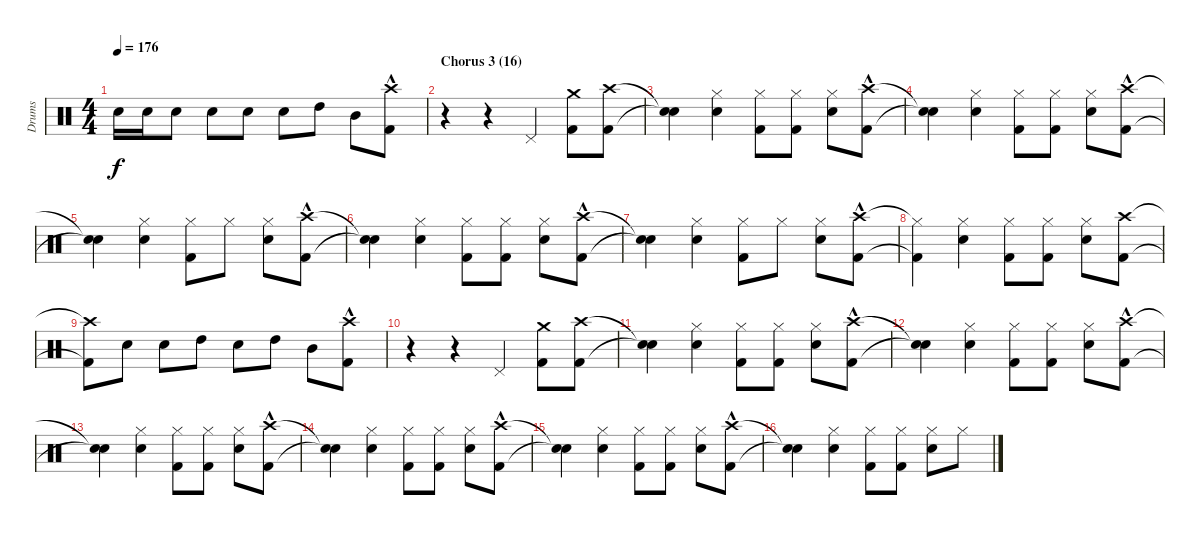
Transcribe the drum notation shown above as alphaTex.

\track ("Drums" "Drums") {instrument percussion}
\staff {score}
\articulation defaults
\ts (4 4)
\tempo 176
\clef neutral
\ks c "Snare (hit)"{t}.16{dy f} "Snare (hit) 2".16 "Snare (hit) 2".8 "Snare (hit) 2".8 "Snare (hit) 2".8 "Snare (hit) 2".8 "High Tom (hit)".8 "Mid Tom (hit)".8
("Crash high (hit)"{hac} "Kick (hit) 2").8 |
\section ("" "Chorus 3 (16)")
r.4 r.4 "Pedal Hi-Hat (hit)".4 ("Crash medium (hit)" "Kick (hit) 2").8 ("Crash high (hit)" "Kick (hit) 2").8 |
("Snare (hit)"{t} "Snare (hit)"{t}).4 ("Hi-Hat (closed)" "Snare (hit) 2").4 ("Hi-Hat (closed)" "Kick (hit) 2").8 ("Hi-Hat (closed)" "Kick (hit) 2").8 ("Hi-Hat (closed)" "Snare (hit) 2").8 ("Crash high (hit)"{hac} "Kick (hit) 2").8 |
("Snare (hit)"{t} "Snare (hit)"{t}).4 ("Hi-Hat (closed)" "Snare (hit) 2").4 ("Hi-Hat (closed)" "Kick (hit) 2").8 ("Hi-Hat (closed)" "Kick (hit) 2").8 ("Hi-Hat (closed)" "Snare (hit) 2").8 ("Crash high (hit)"{hac} "Kick (hit) 2").8 |
("Snare (hit)"{t} "Snare (hit)"{t}).4 ("Hi-Hat (closed)" "Snare (hit) 2").4 ("Hi-Hat (closed)" "Kick (hit) 2").8 "Hi-Hat (closed)".8 ("Hi-Hat (closed)" "Snare (hit) 2").8 ("Crash high (hit)"{hac} "Kick (hit) 2").8 |
("Snare (hit)"{t} "Snare (hit)"{t}).4 ("Hi-Hat (closed)" "Snare (hit) 2").4 ("Hi-Hat (closed)" "Kick (hit) 2").8 ("Hi-Hat (closed)" "Kick (hit) 2").8 ("Hi-Hat (closed)" "Snare (hit) 2").8 ("Crash high (hit)"{hac} "Kick (hit) 2").8 |
("Snare (hit)"{t} "Snare (hit)"{t}).4 ("Hi-Hat (closed)" "Snare (hit) 2").4 ("Hi-Hat (closed)" "Kick (hit) 2").8 "Hi-Hat (closed)".8 ("Hi-Hat (closed)" "Snare (hit) 2").8 ("Crash high (hit)"{hac} "Kick (hit) 2").8 |
("Hi-Hat (closed)"{t} "Kick (hit) 2"{t}).4 ("Hi-Hat (closed)" "Snare (hit) 2").4 ("Hi-Hat (closed)" "Kick (hit) 2").8 ("Hi-Hat (closed)" "Kick (hit) 2").8 ("Hi-Hat (closed)" "Snare (hit) 2").8 ("Crash high (hit)" "Kick (hit) 2").8 |
("Crash high (hit)"{t} "Kick (hit) 2"{t}).8 "Snare (hit) 2".8 "Snare (hit) 2".8 "High Tom (hit)".8 "Snare (hit) 2".8 "High Tom (hit)".8 "Mid Tom (hit)".8 ("Crash high (hit)"{hac} "Kick (hit) 2").8 |
r.4 r.4 "Pedal Hi-Hat (hit)".4 ("Crash medium (hit)" "Kick (hit) 2").8 ("Crash high (hit)" "Kick (hit) 2").8 |
("Snare (hit)"{t} "Snare (hit)"{t}).4 ("Hi-Hat (closed)" "Snare (hit) 2").4 ("Hi-Hat (closed)" "Kick (hit) 2").8 ("Hi-Hat (closed)" "Kick (hit) 2").8 ("Hi-Hat (closed)" "Snare (hit) 2").8 ("Crash high (hit)"{hac} "Kick (hit) 2").8 |
("Snare (hit)"{t} "Snare (hit)"{t}).4 ("Hi-Hat (closed)" "Snare (hit) 2").4 ("Hi-Hat (closed)" "Kick (hit) 2").8 ("Hi-Hat (closed)" "Kick (hit) 2").8 ("Hi-Hat (closed)" "Snare (hit) 2").8 ("Crash high (hit)"{hac} "Kick (hit) 2").8 |
("Snare (hit)"{t} "Snare (hit)"{t}).4 ("Hi-Hat (closed)" "Snare (hit) 2").4 ("Hi-Hat (closed)" "Kick (hit) 2").8 ("Hi-Hat (closed)" "Kick (hit) 2").8 ("Hi-Hat (closed)" "Snare (hit) 2").8 ("Crash high (hit)"{hac} "Kick (hit) 2").8 |
("Snare (hit)"{t} "Snare (hit)"{t}).4 ("Hi-Hat (closed)" "Snare (hit) 2").4 ("Hi-Hat (closed)" "Kick (hit) 2").8 ("Hi-Hat (closed)" "Kick (hit) 2").8 ("Hi-Hat (closed)" "Snare (hit) 2").8 ("Crash high (hit)"{hac} "Kick (hit) 2").8 |
("Snare (hit)"{t} "Snare (hit)"{t}).4 ("Hi-Hat (closed)" "Snare (hit) 2").4 ("Hi-Hat (closed)" "Kick (hit) 2").8 ("Hi-Hat (closed)" "Kick (hit) 2").8 ("Hi-Hat (closed)" "Snare (hit) 2").8 ("Crash high (hit)"{hac} "Kick (hit) 2").8 |
("Snare (hit)"{t} "Snare (hit)"{t}).4 ("Hi-Hat (closed)" "Snare (hit) 2").4 ("Hi-Hat (closed)" "Kick (hit) 2").8 ("Hi-Hat (closed)" "Kick (hit) 2").8 ("Hi-Hat (closed)" "Snare (hit) 2").8 "Hi-Hat (closed)".8
